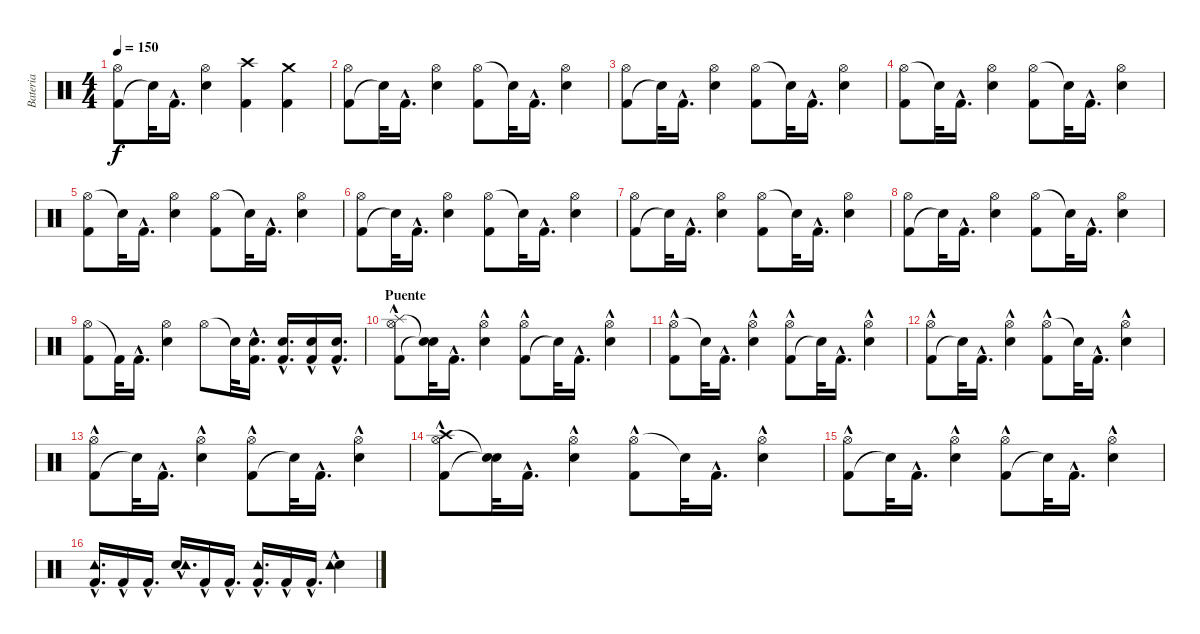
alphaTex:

\track ("Bateria" "Bateria") {instrument percussion}
\staff {score}
\articulation defaults
\ts (4 4)
\tempo 150
\clef neutral
\ks c
("Kick (hit) 2" "Hi-Hat (open)").8{dy f} "Snare (hit)"{t}.32 "Kick (hit) 2"{hac}.16{d} ("Snare (hit) 2" "Hi-Hat (open)").4 ("Crash high (hit)" "Kick (hit) 2").4 ("Crash medium (hit)" "Kick (hit) 2").4 |
("Kick (hit) 2" "Hi-Hat (open)").8 "Snare (hit)"{t}.32 "Kick (hit) 2"{hac}.16{d} ("Snare (hit) 2" "Hi-Hat (open)").4 ("Hi-Hat (open)" "Kick (hit) 2").8 "Snare (hit)"{t}.32 "Kick (hit) 2"{hac}.16{d} ("Snare (hit) 2" "Hi-Hat (open)").4 |
("Kick (hit) 2" "Hi-Hat (open)").8 "Snare (hit)"{t}.32 "Kick (hit) 2"{hac}.16{d} ("Hi-Hat (open)" "Snare (hit) 2").4 ("Hi-Hat (open)" "Kick (hit) 2").8 "Snare (hit)"{t}.32 "Kick (hit) 2"{hac}.16{d} ("Hi-Hat (open)" "Snare (hit) 2").4 |
("Hi-Hat (open)" "Kick (hit) 2").8 "Snare (hit)"{t}.32 "Kick (hit) 2"{hac}.16{d} ("Hi-Hat (open)" "Snare (hit) 2").4 ("Hi-Hat (open)" "Kick (hit) 2").8 "Snare (hit)"{t}.32 "Kick (hit) 2"{hac}.16{d} ("Hi-Hat (open)" "Snare (hit) 2").4 |
("Hi-Hat (open)" "Kick (hit) 2").8 "Snare (hit)"{t}.32 "Kick (hit) 2"{hac}.16{d} ("Hi-Hat (open)" "Snare (hit) 2").4 ("Hi-Hat (open)" "Kick (hit) 2").8 "Snare (hit)"{t}.32 "Kick (hit) 2"{hac}.16{d} ("Hi-Hat (open)" "Snare (hit) 2").4 |
("Kick (hit) 2" "Hi-Hat (open)").8 "Snare (hit)"{t}.32 "Kick (hit) 2"{hac}.16{d} ("Hi-Hat (open)" "Snare (hit) 2").4 ("Hi-Hat (open)" "Kick (hit) 2").8 "Snare (hit)"{t}.32 "Kick (hit) 2"{hac}.16{d} ("Hi-Hat (open)" "Snare (hit) 2").4 |
("Kick (hit) 2" "Hi-Hat (open)").8 "Snare (hit)"{t}.32 "Kick (hit) 2"{hac}.16{d} ("Hi-Hat (open)" "Snare (hit) 2").4 ("Hi-Hat (open)" "Kick (hit) 2").8 "Snare (hit)"{t}.32 "Kick (hit) 2"{hac}.16{d} ("Hi-Hat (open)" "Snare (hit) 2").4 |
("Kick (hit) 2" "Hi-Hat (open)").8 "Snare (hit)"{t}.32 "Kick (hit) 2"{hac}.16{d} ("Hi-Hat (open)" "Snare (hit) 2").4 ("Hi-Hat (open)" "Kick (hit) 2").8 "Snare (hit)"{t}.32 "Kick (hit) 2"{hac}.16{d} ("Hi-Hat (open)" "Snare (hit) 2").4 |
("Hi-Hat (open)" "Kick (hit) 2").8 "Kick (hit) 2"{t}.32 "Kick (hit) 2"{hac}.16{d} ("Hi-Hat (open)" "Snare (hit) 2").4 "Hi-Hat (open)".8 "Snare (hit)"{t}.32 ("Kick (hit) 2"{hac} "Snare (hit) 2"{hac}).16{d} ("Kick (hit) 2"{hac} "Snare (hit) 2"{hac}).16{d} ("Kick (hit) 2"{hac} "Snare (hit) 2"{hac}).16 ("Kick (hit) 2"{hac} "Snare (hit) 2"{hac}).16{d} |
\section ("" "Puente")
("Splash (hit)" "Kick (hit) 2"{hac} "Hi-Hat (open)").8 ("Snare (hit)"{t} "Snare (hit)"{t}).32 "Kick (hit) 2"{hac}.16{d} ("Snare (hit) 2"{hac} "Hi-Hat (open)").4 ("Kick (hit) 2"{hac} "Hi-Hat (open)").8 "Snare (hit)"{t}.32 "Kick (hit) 2"{hac}.16{d} ("Snare (hit) 2"{hac} "Hi-Hat (open)").4 |
("Hi-Hat (open)" "Kick (hit) 2"{hac}).8 "Snare (hit)"{t}.32 "Kick (hit) 2"{hac}.16{d} ("Hi-Hat (open)" "Snare (hit) 2"{hac}).4 ("Kick (hit) 2"{hac} "Hi-Hat (open)").8 "Snare (hit)"{t}.32 "Kick (hit) 2"{hac}.16{d} ("Hi-Hat (open)" "Snare (hit) 2"{hac}).4 |
("Kick (hit) 2"{hac} "Hi-Hat (open)").8 "Snare (hit)"{t}.32 "Kick (hit) 2"{hac}.16{d} ("Snare (hit) 2"{hac} "Hi-Hat (open)").4 ("Hi-Hat (open)" "Kick (hit) 2"{hac}).8 "Snare (hit)"{t}.32 "Kick (hit) 2"{hac}.16{d} ("Snare (hit) 2"{hac} "Hi-Hat (open)").4 |
("Kick (hit) 2"{hac} "Hi-Hat (open)").8 "Snare (hit)"{t}.32 "Kick (hit) 2"{hac}.16{d} ("Snare (hit) 2"{hac} "Hi-Hat (open)").4 ("Kick (hit) 2"{hac} "Hi-Hat (open)").8 "Snare (hit)"{t}.32 "Kick (hit) 2"{hac}.16{d} ("Snare (hit) 2"{hac} "Hi-Hat (open)").4 |
("Kick (hit) 2"{hac} "Crash high (hit)" "Hi-Hat (open)").8 ("Snare (hit)"{t} "Snare (hit)"{t}).32 "Kick (hit) 2"{hac}.16{d} ("Hi-Hat (open)" "Snare (hit) 2"{hac}).4 ("Hi-Hat (open)" "Kick (hit) 2"{hac}).8 "Snare (hit)"{t}.32 "Kick (hit) 2"{hac}.16{d} ("Hi-Hat (open)" "Snare (hit) 2"{hac}).4 |
("Kick (hit) 2"{hac} "Hi-Hat (open)").8 "Snare (hit)"{t}.32 "Kick (hit) 2"{hac}.16{d} ("Hi-Hat (open)" "Snare (hit) 2"{hac}).4 ("Kick (hit) 2"{hac} "Hi-Hat (open)").8 "Snare (hit)"{t}.32 "Kick (hit) 2"{hac}.16{d} ("Snare (hit) 2"{hac} "Hi-Hat (open)").4 |
("Tambourine (hit)" "Kick (hit) 2"{hac}).16{d} "Kick (hit) 2"{hac}.16 "Kick (hit) 2"{hac}.16{d} ("Snare (hit) 2"{hac} "Tambourine (hit)").16{d} "Kick (hit) 2"{hac}.16 "Kick (hit) 2"{hac}.16{d} ("Tambourine (hit)" "Kick (hit) 2"{hac}).16{d} "Kick (hit) 2"{hac}.16 "Kick (hit) 2"{hac}.16{d} ("Snare (hit) 2"{hac} "Tambourine (hit)").4
